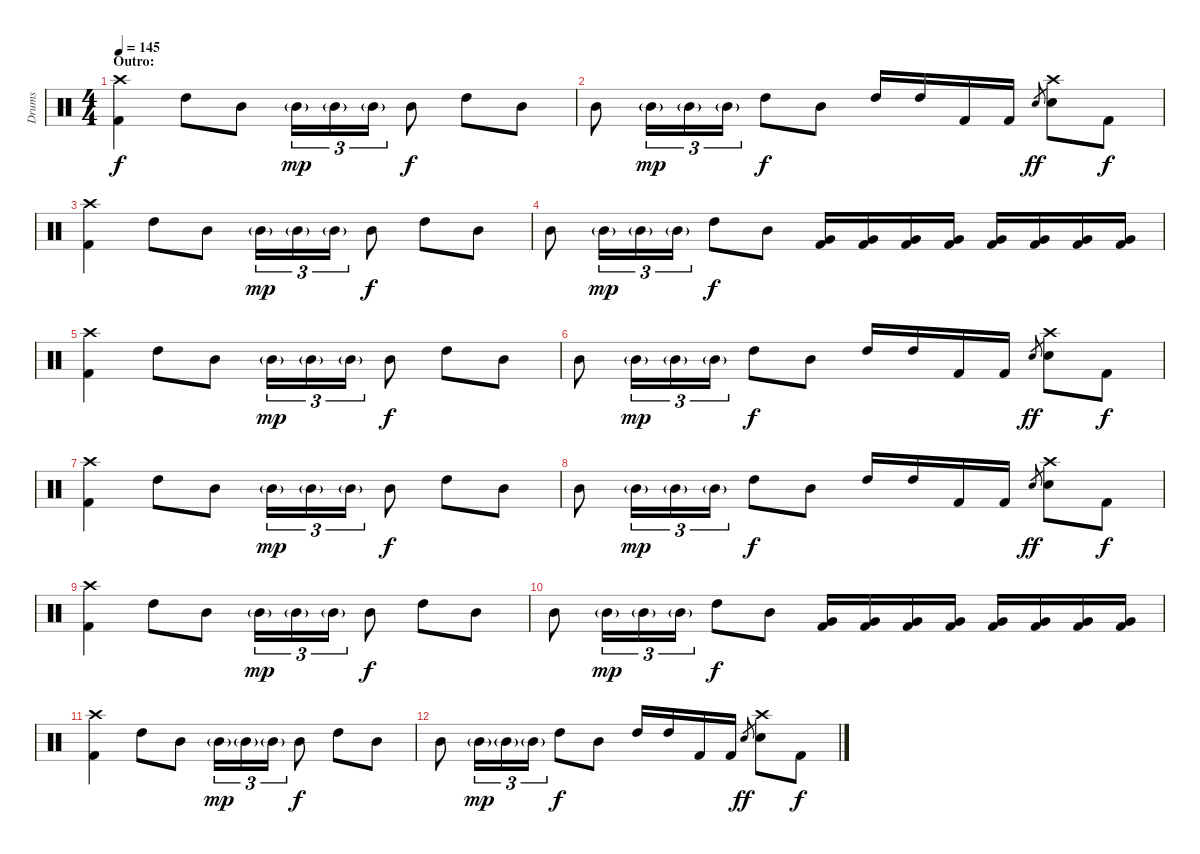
\track ("Drums" "Drums") {instrument percussion}
\staff {score}
\articulation defaults
\ts (4 4)
\section ("" "Outro:")
\tempo 145
\clef neutral
\ks c
("Crash high (hit)" "Kick (hit) 2").4{dy f} "High Tom (hit)".8 "Mid Tom (hit)".8 "Mid Tom (hit)"{g}.16{tu (3 2) dy mp} "Mid Tom (hit)"{g}.16{tu (3 2)} "Mid Tom (hit)"{g}.16{tu (3 2)} "Mid Tom (hit)".8{dy f} "High Tom (hit)".8 "Mid Tom (hit)".8 |
"Mid Tom (hit)".8 "Mid Tom (hit)"{g}.16{tu (3 2) dy mp} "Mid Tom (hit)"{g}.16{tu (3 2)} "Mid Tom (hit)"{g}.16{tu (3 2)} "High Tom (hit)".8{dy f} "Mid Tom (hit)".8 "High Tom (hit)".16 "High Tom (hit)".16 "Kick (hit) 2".16 "Kick (hit) 2".16 "Electric Snare (hit)".8{gr dy ff} ("Crash high (hit)" "Electric Snare (hit)").8 "Kick (hit) 2".8{dy f} |
("Crash high (hit)" "Kick (hit) 2").4 "High Tom (hit)".8 "Mid Tom (hit)".8 "Mid Tom (hit)"{g}.16{tu (3 2) dy mp} "Mid Tom (hit)"{g}.16{tu (3 2)} "Mid Tom (hit)"{g}.16{tu (3 2)} "Mid Tom (hit)".8{dy f} "High Tom (hit)".8 "Mid Tom (hit)".8 |
"Mid Tom (hit)".8 "Mid Tom (hit)"{g}.16{tu (3 2) dy mp} "Mid Tom (hit)"{g}.16{tu (3 2)} "Mid Tom (hit)"{g}.16{tu (3 2)} "High Tom (hit)".8{dy f} "Mid Tom (hit)".8 ("Very Low Tom (hit)" "Kick (hit) 2").16 ("Very Low Tom (hit)" "Kick (hit) 2").16 ("Very Low Tom (hit)" "Kick (hit) 2").16 ("Very Low Tom (hit)" "Kick (hit) 2").16 ("Very Low Tom (hit)" "Kick (hit) 2").16 ("Very Low Tom (hit)" "Kick (hit) 2").16 ("Very Low Tom (hit)" "Kick (hit) 2").16 ("Very Low Tom (hit)" "Kick (hit) 2").16 |
("Crash high (hit)" "Kick (hit) 2").4 "High Tom (hit)".8 "Mid Tom (hit)".8 "Mid Tom (hit)"{g}.16{tu (3 2) dy mp} "Mid Tom (hit)"{g}.16{tu (3 2)} "Mid Tom (hit)"{g}.16{tu (3 2)} "Mid Tom (hit)".8{dy f} "High Tom (hit)".8 "Mid Tom (hit)".8 |
"Mid Tom (hit)".8 "Mid Tom (hit)"{g}.16{tu (3 2) dy mp} "Mid Tom (hit)"{g}.16{tu (3 2)} "Mid Tom (hit)"{g}.16{tu (3 2)} "High Tom (hit)".8{dy f} "Mid Tom (hit)".8 "High Tom (hit)".16 "High Tom (hit)".16 "Kick (hit) 2".16 "Kick (hit) 2".16 "Electric Snare (hit)".8{gr dy ff} ("Crash high (hit)" "Electric Snare (hit)").8 "Kick (hit) 2".8{dy f} |
("Crash high (hit)" "Kick (hit) 2").4 "High Tom (hit)".8 "Mid Tom (hit)".8 "Mid Tom (hit)"{g}.16{tu (3 2) dy mp} "Mid Tom (hit)"{g}.16{tu (3 2)} "Mid Tom (hit)"{g}.16{tu (3 2)} "Mid Tom (hit)".8{dy f} "High Tom (hit)".8 "Mid Tom (hit)".8 |
"Mid Tom (hit)".8 "Mid Tom (hit)"{g}.16{tu (3 2) dy mp} "Mid Tom (hit)"{g}.16{tu (3 2)} "Mid Tom (hit)"{g}.16{tu (3 2)} "High Tom (hit)".8{dy f} "Mid Tom (hit)".8 "High Tom (hit)".16 "High Tom (hit)".16 "Kick (hit) 2".16 "Kick (hit) 2".16 "Electric Snare (hit)".8{gr dy ff} ("Crash high (hit)" "Electric Snare (hit)").8 "Kick (hit) 2".8{dy f} |
("Crash high (hit)" "Kick (hit) 2").4{volume 5} "High Tom (hit)".8 "Mid Tom (hit)".8 "Mid Tom (hit)"{g}.16{tu (3 2) dy mp} "Mid Tom (hit)"{g}.16{tu (3 2)} "Mid Tom (hit)"{g}.16{tu (3 2)} "Mid Tom (hit)".8{dy f} "High Tom (hit)".8 "Mid Tom (hit)".8 |
"Mid Tom (hit)".8 "Mid Tom (hit)"{g}.16{tu (3 2) dy mp} "Mid Tom (hit)"{g}.16{tu (3 2)} "Mid Tom (hit)"{g}.16{tu (3 2)} "High Tom (hit)".8{dy f} "Mid Tom (hit)".8 ("Very Low Tom (hit)" "Kick (hit) 2").16 ("Very Low Tom (hit)" "Kick (hit) 2").16 ("Very Low Tom (hit)" "Kick (hit) 2").16 ("Very Low Tom (hit)" "Kick (hit) 2").16 ("Very Low Tom (hit)" "Kick (hit) 2").16 ("Very Low Tom (hit)" "Kick (hit) 2").16 ("Very Low Tom (hit)" "Kick (hit) 2").16 ("Very Low Tom (hit)" "Kick (hit) 2").16 |
("Crash high (hit)" "Kick (hit) 2").4{volume 2} "High Tom (hit)".8 "Mid Tom (hit)".8 "Mid Tom (hit)"{g}.16{tu (3 2) dy mp} "Mid Tom (hit)"{g}.16{tu (3 2)} "Mid Tom (hit)"{g}.16{tu (3 2)} "Mid Tom (hit)".8{dy f} "High Tom (hit)".8 "Mid Tom (hit)".8 |
"Mid Tom (hit)".8 "Mid Tom (hit)"{g}.16{tu (3 2) dy mp} "Mid Tom (hit)"{g}.16{tu (3 2)} "Mid Tom (hit)"{g}.16{tu (3 2)} "High Tom (hit)".8{dy f} "Mid Tom (hit)".8 "High Tom (hit)".16 "High Tom (hit)".16 "Kick (hit) 2".16 "Kick (hit) 2".16 "Electric Snare (hit)".8{gr dy ff} ("Crash high (hit)" "Electric Snare (hit)").8 "Kick (hit) 2".8{dy f}
